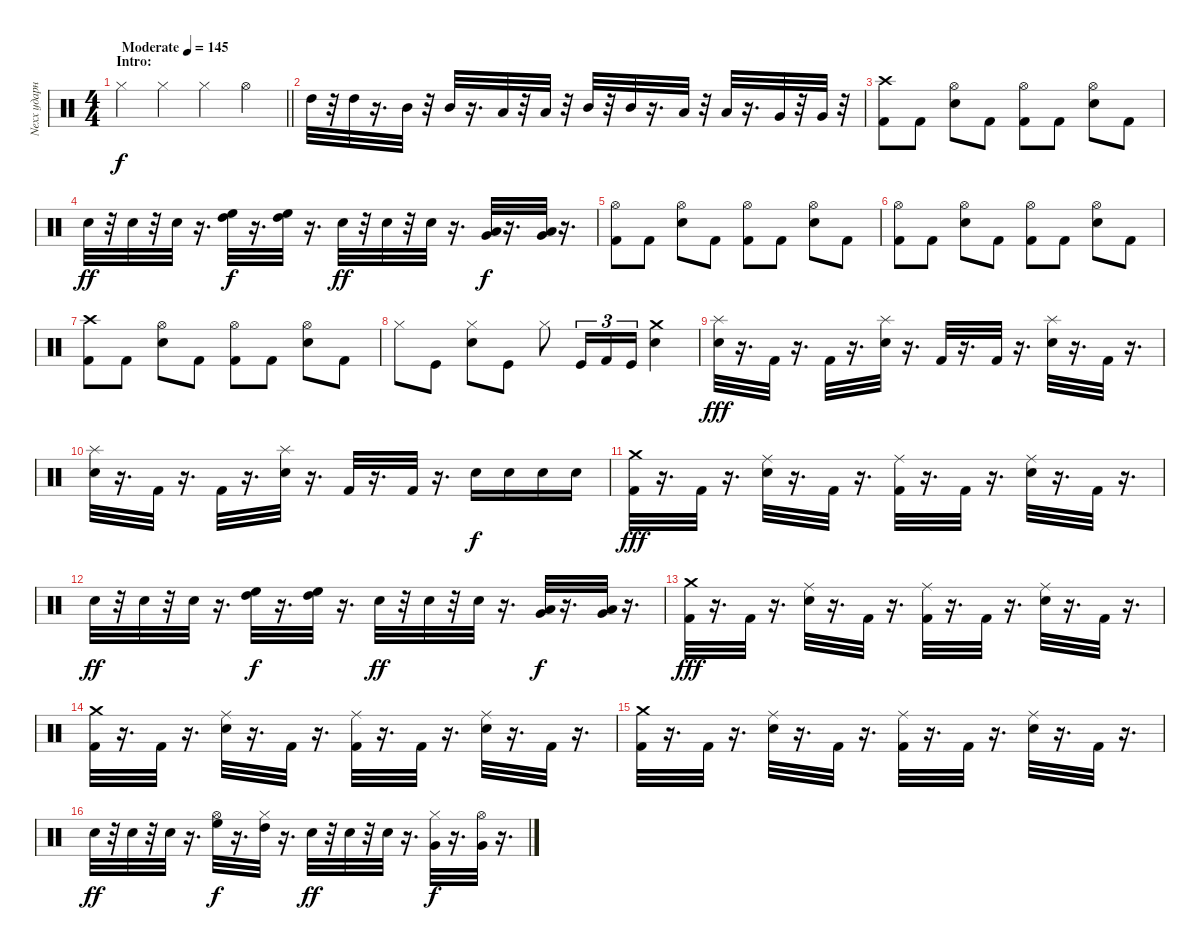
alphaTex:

\track ("Nexx ударные" "Nexx ударн") {instrument percussion}
\staff {score}
\articulation defaults
\ts (4 4)
\section ("" "Intro:")
\tempo (145 "Moderate")
\clef neutral
\barLineRight lightlight
\ks c "Hi-Hat (closed)".4{dy f} "Hi-Hat (closed)".4 "Hi-Hat (closed)".4 "Hi-Hat (open)".4
|
"High Tom (hit)".32 r.32 "High Tom (hit)".32 r.16{d} "Mid Tom (hit)".32 r.32 "Mid Tom (hit)".32 r.16{d} "Low Tom (hit)".32 r.32 "Low Tom (hit)".32 r.32 "Mid Tom (hit)".32 r.32 "Mid Tom (hit)".32 r.16{d} "Low Tom (hit)".32 r.32 "Low Tom (hit)".32 r.16{d} "Very Low Tom (hit)".32 r.32 "Very Low Tom (hit)".32 r.32 |
("Crash high (hit)" "Kick (hit) 2").8 "Kick (hit) 2".8 ("Snare (hit) 2" "Hi-Hat (open)").8 "Kick (hit) 2".8 ("Hi-Hat (open)" "Kick (hit) 2").8 "Kick (hit) 2".8 ("Snare (hit) 2" "Hi-Hat (open)").8 "Kick (hit) 2".8 |
"Snare (hit) 2".32{dy ff} r.32 "Snare (hit) 2".32 r.32 "Snare (hit) 2".32 r.16{d} ("High Floor Tom (hit)" "High Tom (hit)").32{dy f} r.16{d} ("High Tom (hit)" "High Floor Tom (hit)").32 r.16{d} "Snare (hit) 2".32{dy ff} r.32 "Snare (hit) 2".32 r.32 "Snare (hit) 2".32 r.16{d} ("Very Low Tom (hit)" "Low Tom (hit)").32{dy f} r.16{d} ("Very Low Tom (hit)" "Low Tom (hit)").32 r.16{d} |
("Hi-Hat (open)" "Kick (hit) 2").8 "Kick (hit) 2".8 ("Snare (hit) 2" "Hi-Hat (open)").8 "Kick (hit) 2".8 ("Hi-Hat (open)" "Kick (hit) 2").8 "Kick (hit) 2".8 ("Snare (hit) 2" "Hi-Hat (open)").8 "Kick (hit) 2".8 |
("Hi-Hat (open)" "Kick (hit) 2").8 "Kick (hit) 2".8 ("Snare (hit) 2" "Hi-Hat (open)").8 "Kick (hit) 2".8 ("Hi-Hat (open)" "Kick (hit) 2").8 "Kick (hit) 2".8 ("Snare (hit) 2" "Hi-Hat (open)").8 "Kick (hit) 2".8 |
("Crash high (hit)" "Kick (hit) 2").8 "Kick (hit) 2".8 ("Snare (hit) 2" "Hi-Hat (open)").8 "Kick (hit) 2".8 ("Hi-Hat (open)" "Kick (hit) 2").8 "Kick (hit) 2".8 ("Snare (hit) 2" "Hi-Hat (open)").8 "Kick (hit) 2".8 |
"Hi-Hat (closed)".8 "Kick (hit)".8 ("Snare (hit) 2" "Hi-Hat (closed)").8 "Kick (hit)".8 "Hi-Hat (closed)".8 "Kick (hit)".16{tu (3 2)} "Kick (hit) 2".16{tu (3 2)} "Kick (hit)".16{tu (3 2)} ("Crash medium (hit)" "Snare (hit) 2").4 |
("Snare (hit) 2" "Splash (hit)").32{dy fff} r.16{d} "Kick (hit) 2".32 r.16{d} "Kick (hit) 2".32 r.16{d} ("Splash (hit)" "Snare (hit) 2").32 r.16{d} "Kick (hit) 2".32 r.16{d} "Kick (hit) 2".32 r.16{d} ("Splash (hit)" "Snare (hit) 2").32 r.16{d} "Kick (hit) 2".32 r.16{d} |
("Snare (hit) 2" "Splash (hit)").32 r.16{d} "Kick (hit) 2".32 r.16{d} "Kick (hit) 2".32 r.16{d} ("Splash (hit)" "Snare (hit) 2").32 r.16{d} "Kick (hit) 2".32 r.16{d} "Kick (hit) 2".32 r.16{d} "Snare (hit) 2".16{dy f} "Snare (hit) 2".16 "Snare (hit) 2".16 "Snare (hit) 2".16 |
("Crash medium (hit)" "Kick (hit) 2").32{dy fff} r.16{d} "Kick (hit) 2".32 r.16{d} ("Ride (middle)" "Snare (hit) 2").32 r.16{d} "Kick (hit) 2".32 r.16{d} ("Kick (hit) 2" "Ride (middle)").32 r.16{d} "Kick (hit) 2".32 r.16{d} ("Snare (hit) 2" "Ride (middle)").32 r.16{d} "Kick (hit) 2".32 r.16{d} |
"Snare (hit) 2".32{dy ff} r.32 "Snare (hit) 2".32 r.32 "Snare (hit) 2".32 r.16{d} ("High Floor Tom (hit)" "High Tom (hit)").32{dy f} r.16{d} ("High Tom (hit)" "High Floor Tom (hit)").32 r.16{d} "Snare (hit) 2".32{dy ff} r.32 "Snare (hit) 2".32 r.32 "Snare (hit) 2".32 r.16{d} ("Very Low Tom (hit)" "Low Tom (hit)").32{dy f} r.16{d} ("Very Low Tom (hit)" "Low Tom (hit)").32 r.16{d} |
("Crash medium (hit)" "Kick (hit) 2").32{dy fff} r.16{d} "Kick (hit) 2".32 r.16{d} ("Ride (middle)" "Snare (hit) 2").32 r.16{d} "Kick (hit) 2".32 r.16{d} ("Kick (hit) 2" "Ride (middle)").32 r.16{d} "Kick (hit) 2".32 r.16{d} ("Snare (hit) 2" "Ride (middle)").32 r.16{d} "Kick (hit) 2".32 r.16{d} |
("Crash medium (hit)" "Kick (hit) 2").32 r.16{d} "Kick (hit) 2".32 r.16{d} ("Ride (middle)" "Snare (hit) 2").32 r.16{d} "Kick (hit) 2".32 r.16{d} ("Kick (hit) 2" "Ride (middle)").32 r.16{d} "Kick (hit) 2".32 r.16{d} ("Snare (hit) 2" "Ride (middle)").32 r.16{d} "Kick (hit) 2".32 r.16{d} |
("Crash medium (hit)" "Kick (hit) 2").32 r.16{d} "Kick (hit) 2".32 r.16{d} ("Ride (middle)" "Snare (hit) 2").32 r.16{d} "Kick (hit) 2".32 r.16{d} ("Kick (hit) 2" "Ride (middle)").32 r.16{d} "Kick (hit) 2".32 r.16{d} ("Snare (hit) 2" "Ride (middle)").32 r.16{d} "Kick (hit) 2".32 r.16{d} |
"Snare (hit) 2".32{dy ff} r.32 "Snare (hit) 2".32 r.32 "Snare (hit) 2".32 r.16{d} ("High Floor Tom (hit)" "Hi-Hat (open)").32{dy f} r.16{d} ("High Tom (hit)" "Hi-Hat (closed)").32 r.16{d} "Snare (hit) 2".32{dy ff} r.32 "Snare (hit) 2".32 r.32 "Snare (hit) 2".32 r.16{d} ("Very Low Tom (hit)" "Hi-Hat (closed)").32{dy f} r.16{d} ("Very Low Tom (hit)" "Hi-Hat (open)").32 r.16{d}
